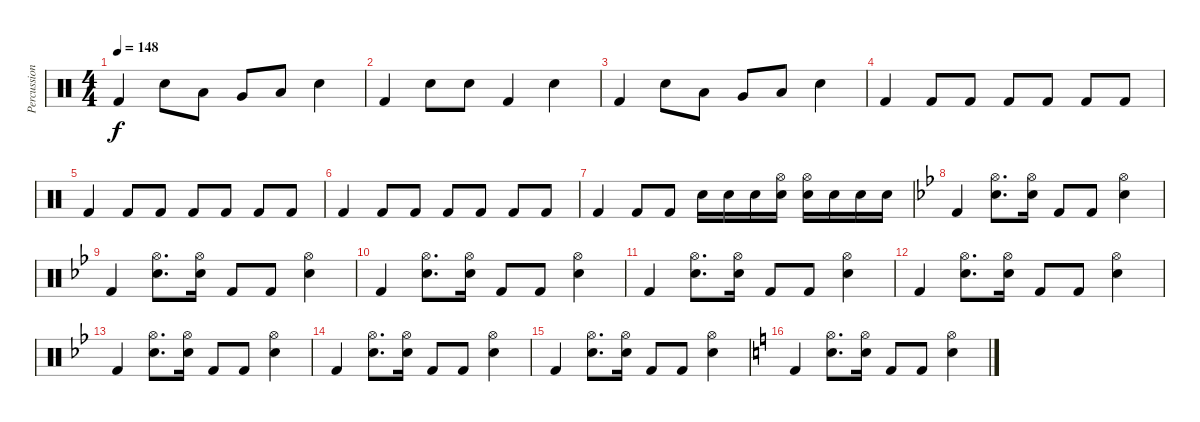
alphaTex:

\track ("Percussion" "Percussion") {instrument percussion}
\staff {score}
\articulation defaults
\ts (4 4)
\tempo 148
\clef neutral
\ks c "Kick (hit) 2".4{dy f} "Electric Snare (hit)".8 "Low Tom (hit)".8 "Very Low Tom (hit)".8 "Low Floor Tom (hit)".8 "Electric Snare (hit)".4
|
"Kick (hit) 2".4 "Electric Snare (hit)".8 "Electric Snare (hit)".8 "Kick (hit) 2".4 "Electric Snare (hit)".4 |
"Kick (hit) 2".4 "Electric Snare (hit)".8 "Low Tom (hit)".8 "Very Low Tom (hit)".8 "Low Floor Tom (hit)".8 "Electric Snare (hit)".4 |
"Kick (hit) 2".4 "Kick (hit) 2".8 "Kick (hit) 2".8 "Kick (hit) 2".8 "Kick (hit) 2".8 "Kick (hit) 2".8 "Kick (hit) 2".8 |
"Kick (hit) 2".4 "Kick (hit) 2".8 "Kick (hit) 2".8 "Kick (hit) 2".8 "Kick (hit) 2".8 "Kick (hit) 2".8 "Kick (hit) 2".8 |
"Kick (hit) 2".4 "Kick (hit) 2".8 "Kick (hit) 2".8 "Kick (hit) 2".8 "Kick (hit) 2".8 "Kick (hit) 2".8 "Kick (hit) 2".8 |
"Kick (hit) 2".4 "Kick (hit) 2".8 "Kick (hit) 2".8 "Electric Snare (hit)".16 "Electric Snare (hit)".16 "Electric Snare (hit)".16 ("Hi-Hat (open)" "Electric Snare (hit)").16 ("Hi-Hat (open)" "Electric Snare (hit)").16 "Electric Snare (hit)".16 "Electric Snare (hit)".16 "Electric Snare (hit)".16 |
\ks bb "Kick (hit) 2".4
("Hi-Hat (open)" "Electric Snare (hit)").8{d} ("Hi-Hat (open)" "Electric Snare (hit)").16 "Kick (hit) 2".8 "Kick (hit) 2".8 ("Hi-Hat (open)" "Electric Snare (hit)").4 |
"Kick (hit) 2".4 ("Hi-Hat (open)" "Electric Snare (hit)").8{d} ("Hi-Hat (open)" "Electric Snare (hit)").16 "Kick (hit) 2".8 "Kick (hit) 2".8 ("Hi-Hat (open)" "Electric Snare (hit)").4 |
"Kick (hit) 2".4 ("Hi-Hat (open)" "Electric Snare (hit)").8{d} ("Hi-Hat (open)" "Electric Snare (hit)").16 "Kick (hit) 2".8 "Kick (hit) 2".8 ("Hi-Hat (open)" "Electric Snare (hit)").4 |
"Kick (hit) 2".4 ("Hi-Hat (open)" "Electric Snare (hit)").8{d} ("Hi-Hat (open)" "Electric Snare (hit)").16 "Kick (hit) 2".8 "Kick (hit) 2".8 ("Hi-Hat (open)" "Electric Snare (hit)").4 |
"Kick (hit) 2".4 ("Hi-Hat (open)" "Electric Snare (hit)").8{d} ("Hi-Hat (open)" "Electric Snare (hit)").16 "Kick (hit) 2".8 "Kick (hit) 2".8 ("Hi-Hat (open)" "Electric Snare (hit)").4 |
"Kick (hit) 2".4 ("Hi-Hat (open)" "Electric Snare (hit)").8{d} ("Hi-Hat (open)" "Electric Snare (hit)").16 "Kick (hit) 2".8 "Kick (hit) 2".8 ("Hi-Hat (open)" "Electric Snare (hit)").4 |
"Kick (hit) 2".4 ("Hi-Hat (open)" "Electric Snare (hit)").8{d} ("Hi-Hat (open)" "Electric Snare (hit)").16 "Kick (hit) 2".8 "Kick (hit) 2".8 ("Hi-Hat (open)" "Electric Snare (hit)").4 |
"Kick (hit) 2".4 ("Hi-Hat (open)" "Electric Snare (hit)").8{d} ("Hi-Hat (open)" "Electric Snare (hit)").16 "Kick (hit) 2".8 "Kick (hit) 2".8 ("Hi-Hat (open)" "Electric Snare (hit)").4 |
\ks c "Kick (hit) 2".4
("Hi-Hat (open)" "Electric Snare (hit)").8{d} ("Hi-Hat (open)" "Electric Snare (hit)").16 "Kick (hit) 2".8 "Kick (hit) 2".8 ("Hi-Hat (open)" "Electric Snare (hit)").4
